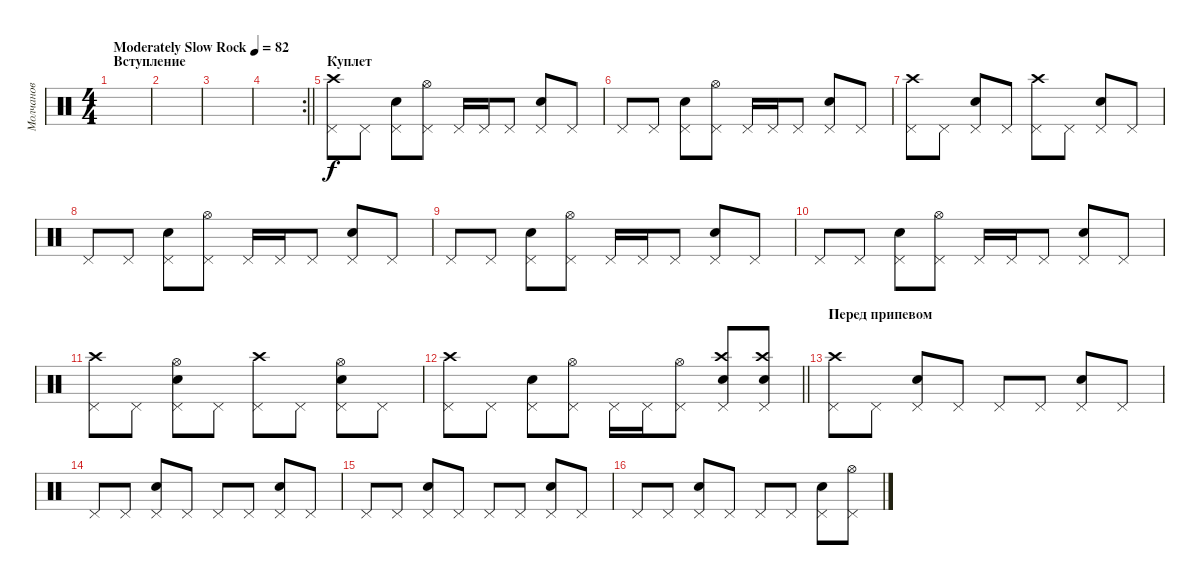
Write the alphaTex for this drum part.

\track ("Молчанов" "Молчанов") {instrument percussion}
\staff {score}
\articulation defaults
\ts (4 4)
\section ("" "Вступление")
\tempo (82 "Moderately Slow Rock")
\clef neutral
\ks c
|
|
|
\rc 2
\barLineRight lightlight
|
\section ("" "Куплет")
("Pedal Hi-Hat (hit)" "Crash high (hit)").8 "Pedal Hi-Hat (hit)".8 ("Pedal Hi-Hat (hit)" "Electric Snare (hit)").8 ("Pedal Hi-Hat (hit)" "Hi-Hat (open)").8 "Pedal Hi-Hat (hit)".16 "Pedal Hi-Hat (hit)".16 "Pedal Hi-Hat (hit)".8 ("Pedal Hi-Hat (hit)" "Electric Snare (hit)").8 "Pedal Hi-Hat (hit)".8 |
"Pedal Hi-Hat (hit)".8 "Pedal Hi-Hat (hit)".8 ("Pedal Hi-Hat (hit)" "Electric Snare (hit)").8 ("Pedal Hi-Hat (hit)" "Hi-Hat (open)").8 "Pedal Hi-Hat (hit)".16 "Pedal Hi-Hat (hit)".16 "Pedal Hi-Hat (hit)".8 ("Pedal Hi-Hat (hit)" "Electric Snare (hit)").8 "Pedal Hi-Hat (hit)".8 |
("Pedal Hi-Hat (hit)" "Crash high (hit)").8 "Pedal Hi-Hat (hit)".8 ("Pedal Hi-Hat (hit)" "Electric Snare (hit)").8 "Pedal Hi-Hat (hit)".8 ("Pedal Hi-Hat (hit)" "Crash high (hit)").8 "Pedal Hi-Hat (hit)".8 ("Pedal Hi-Hat (hit)" "Electric Snare (hit)").8 "Pedal Hi-Hat (hit)".8 |
"Pedal Hi-Hat (hit)".8 "Pedal Hi-Hat (hit)".8 ("Pedal Hi-Hat (hit)" "Electric Snare (hit)").8 ("Pedal Hi-Hat (hit)" "Hi-Hat (open)").8 "Pedal Hi-Hat (hit)".16 "Pedal Hi-Hat (hit)".16 "Pedal Hi-Hat (hit)".8 ("Pedal Hi-Hat (hit)" "Electric Snare (hit)").8 "Pedal Hi-Hat (hit)".8 |
"Pedal Hi-Hat (hit)".8 "Pedal Hi-Hat (hit)".8 ("Pedal Hi-Hat (hit)" "Electric Snare (hit)").8 ("Pedal Hi-Hat (hit)" "Hi-Hat (open)").8 "Pedal Hi-Hat (hit)".16 "Pedal Hi-Hat (hit)".16 "Pedal Hi-Hat (hit)".8 ("Pedal Hi-Hat (hit)" "Electric Snare (hit)").8 "Pedal Hi-Hat (hit)".8 |
"Pedal Hi-Hat (hit)".8 "Pedal Hi-Hat (hit)".8 ("Pedal Hi-Hat (hit)" "Electric Snare (hit)").8 ("Pedal Hi-Hat (hit)" "Hi-Hat (open)").8 "Pedal Hi-Hat (hit)".16 "Pedal Hi-Hat (hit)".16 "Pedal Hi-Hat (hit)".8 ("Pedal Hi-Hat (hit)" "Electric Snare (hit)").8 "Pedal Hi-Hat (hit)".8 |
("Pedal Hi-Hat (hit)" "Crash high (hit)").8 "Pedal Hi-Hat (hit)".8 ("Pedal Hi-Hat (hit)" "Hi-Hat (open)" "Electric Snare (hit)").8 "Pedal Hi-Hat (hit)".8 ("Pedal Hi-Hat (hit)" "Crash high (hit)").8 "Pedal Hi-Hat (hit)".8 ("Pedal Hi-Hat (hit)" "Hi-Hat (open)" "Electric Snare (hit)").8 "Pedal Hi-Hat (hit)".8 |
\barLineRight lightlight
("Pedal Hi-Hat (hit)" "Crash high (hit)").8 "Pedal Hi-Hat (hit)".8 ("Pedal Hi-Hat (hit)" "Electric Snare (hit)").8 ("Pedal Hi-Hat (hit)" "Hi-Hat (open)").8 "Pedal Hi-Hat (hit)".16 "Pedal Hi-Hat (hit)".16 ("Pedal Hi-Hat (hit)" "Hi-Hat (open)").8 ("Pedal Hi-Hat (hit)" "Crash high (hit)" "Electric Snare (hit)").8 ("Pedal Hi-Hat (hit)" "Crash high (hit)" "Electric Snare (hit)").8 |
\section ("" "Перед припевом")
("Pedal Hi-Hat (hit)" "Crash high (hit)").8 "Pedal Hi-Hat (hit)".8 ("Pedal Hi-Hat (hit)" "Electric Snare (hit)").8 "Pedal Hi-Hat (hit)".8 "Pedal Hi-Hat (hit)".8 "Pedal Hi-Hat (hit)".8 ("Pedal Hi-Hat (hit)" "Electric Snare (hit)").8 "Pedal Hi-Hat (hit)".8 |
"Pedal Hi-Hat (hit)".8 "Pedal Hi-Hat (hit)".8 ("Pedal Hi-Hat (hit)" "Electric Snare (hit)").8 "Pedal Hi-Hat (hit)".8 "Pedal Hi-Hat (hit)".8 "Pedal Hi-Hat (hit)".8 ("Pedal Hi-Hat (hit)" "Electric Snare (hit)").8 "Pedal Hi-Hat (hit)".8 |
"Pedal Hi-Hat (hit)".8 "Pedal Hi-Hat (hit)".8 ("Pedal Hi-Hat (hit)" "Electric Snare (hit)").8 "Pedal Hi-Hat (hit)".8 "Pedal Hi-Hat (hit)".8 "Pedal Hi-Hat (hit)".8 ("Pedal Hi-Hat (hit)" "Electric Snare (hit)").8 "Pedal Hi-Hat (hit)".8 |
"Pedal Hi-Hat (hit)".8 "Pedal Hi-Hat (hit)".8 ("Pedal Hi-Hat (hit)" "Electric Snare (hit)").8 "Pedal Hi-Hat (hit)".8 "Pedal Hi-Hat (hit)".8 "Pedal Hi-Hat (hit)".8 ("Pedal Hi-Hat (hit)" "Electric Snare (hit)").8 ("Pedal Hi-Hat (hit)" "Hi-Hat (open)").8
